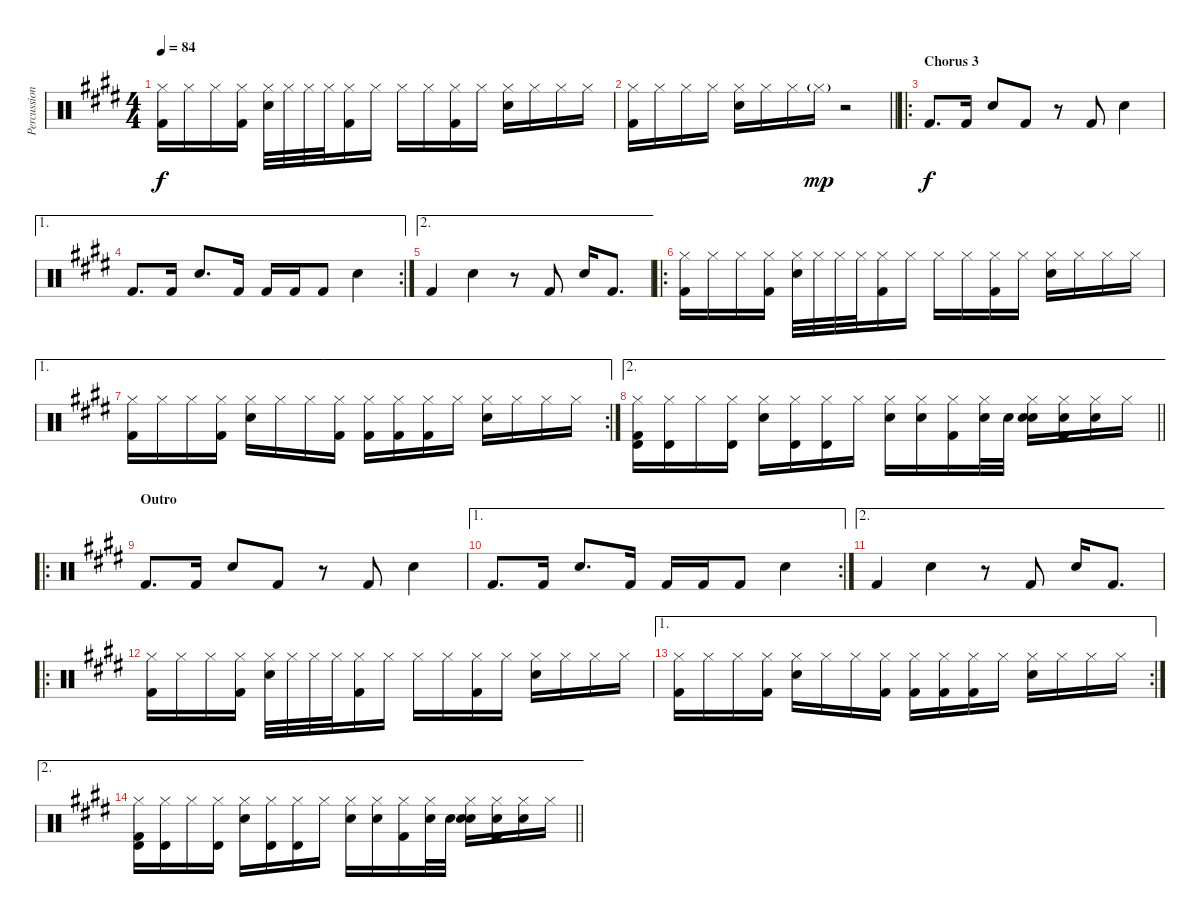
\track ("Percussion" "Percussion") {instrument percussion}
\staff {score}
\articulation defaults
\ts (4 4)
\tempo 84
\clef neutral
\ks e
("Hi-Hat (closed)" "Kick (hit) 2").16{dy f} "Hi-Hat (closed)".16 "Hi-Hat (closed)".16 ("Hi-Hat (closed)" "Kick (hit) 2").16 ("Hi-Hat (closed)" "Hand Clap (hit)").32 "Hi-Hat (closed)".32 "Hi-Hat (closed)".32 "Hi-Hat (closed)".32 ("Hi-Hat (closed)" "Kick (hit) 2").16 "Hi-Hat (closed)".16 "Hi-Hat (closed)".16 "Hi-Hat (closed)".16 ("Hi-Hat (closed)" "Kick (hit) 2").16 "Hi-Hat (closed)".16 ("Hi-Hat (closed)" "Hand Clap (hit)").16 "Hi-Hat (closed)".16 "Hi-Hat (closed)".16 "Hi-Hat (closed)".16 |
\barLineRight lightlight
("Hi-Hat (closed)" "Kick (hit) 2").16 "Hi-Hat (closed)".16 "Hi-Hat (closed)".16 "Hi-Hat (closed)".16 ("Hi-Hat (closed)" "Hand Clap (hit)").16 "Hi-Hat (closed)".16 "Hi-Hat (closed)".16 "Hi-Hat (closed)"{g}.16{dy mp} r.2 |
\ro
\section ("" "Chorus 3")
"Kick (hit) 2".8{d dy f} "Kick (hit) 2".16 "Hand Clap (hit)".8 "Kick (hit) 2".8 r.8 "Kick (hit) 2".8 "Hand Clap (hit)".4 |
\ae 1
\rc 2 "Kick (hit) 2".8{d} "Kick (hit) 2".16 "Hand Clap (hit)".8{d} "Kick (hit) 2".16 "Kick (hit) 2".16 "Kick (hit) 2".16 "Kick (hit) 2".8 "Hand Clap (hit)".4
|
\ae 2 "Kick (hit) 2".4 "Hand Clap (hit)".4
r.8 "Kick (hit) 2".8 "Hand Clap (hit)".16 "Kick (hit) 2".8{d} |
\ro
("Hi-Hat (closed)" "Kick (hit) 2").16 "Hi-Hat (closed)".16 "Hi-Hat (closed)".16 ("Hi-Hat (closed)" "Kick (hit) 2").16 ("Hi-Hat (closed)" "Hand Clap (hit)").32 "Hi-Hat (closed)".32 "Hi-Hat (closed)".32 "Hi-Hat (closed)".32 ("Hi-Hat (closed)" "Kick (hit) 2").16 "Hi-Hat (closed)".16 "Hi-Hat (closed)".16 "Hi-Hat (closed)".16 ("Hi-Hat (closed)" "Kick (hit) 2").16 "Hi-Hat (closed)".16 ("Hi-Hat (closed)" "Hand Clap (hit)").16 "Hi-Hat (closed)".16 "Hi-Hat (closed)".16 "Hi-Hat (closed)".16 |
\ae 1
\rc 2
("Hi-Hat (closed)" "Kick (hit) 2").16 "Hi-Hat (closed)".16 "Hi-Hat (closed)".16 ("Hi-Hat (closed)" "Kick (hit) 2").16 ("Hi-Hat (closed)" "Hand Clap (hit)").16 "Hi-Hat (closed)".16 "Hi-Hat (closed)".16 ("Hi-Hat (closed)" "Kick (hit) 2").16 ("Hi-Hat (closed)" "Kick (hit) 2").16 ("Hi-Hat (closed)" "Kick (hit) 2").16 ("Hi-Hat (closed)" "Kick (hit) 2").16 "Hi-Hat (closed)".16 ("Hi-Hat (closed)" "Hand Clap (hit)").16 "Hi-Hat (closed)".16 "Hi-Hat (closed)".16 "Hi-Hat (closed)".16 |
\ae 2
\barLineRight lightlight
("Hi-Hat (closed)" "Timbale high (hit)" "Kick (hit) 2").16 ("Hi-Hat (closed)" "Timbale high (hit)").16 "Hi-Hat (closed)".16 ("Hi-Hat (closed)" "Timbale high (hit)").16 ("Hi-Hat (closed)" "Hand Clap (hit)").16 ("Hi-Hat (closed)" "Timbale high (hit)").16 ("Hi-Hat (closed)" "Timbale high (hit)").16 "Hi-Hat (closed)".16 ("Hi-Hat (closed)" "Snare (hit) 2").16 ("Hi-Hat (closed)" "Snare (hit) 2").16 ("Hi-Hat (closed)" "Kick (hit) 2").16 ("Hi-Hat (closed)" "Snare (hit) 2").32 "Snare (hit) 2".32 ("Hi-Hat (closed)" "Snare (hit) 2" "Hand Clap (hit)").16 ("Hi-Hat (closed)" "Snare (hit) 2" "Kick (hit) 2").16 ("Hi-Hat (closed)" "Snare (hit) 2").16 "Hi-Hat (closed)".16 |
\ro
\section ("" "Outro")
"Kick (hit) 2".8{d} "Kick (hit) 2".16 "Hand Clap (hit)".8 "Kick (hit) 2".8 r.8 "Kick (hit) 2".8 "Hand Clap (hit)".4 |
\ae 1
\rc 2 "Kick (hit) 2".8{d} "Kick (hit) 2".16 "Hand Clap (hit)".8{d} "Kick (hit) 2".16 "Kick (hit) 2".16 "Kick (hit) 2".16 "Kick (hit) 2".8 "Hand Clap (hit)".4
|
\ae 2 "Kick (hit) 2".4 "Hand Clap (hit)".4
r.8 "Kick (hit) 2".8 "Hand Clap (hit)".16 "Kick (hit) 2".8{d} |
\ro
("Hi-Hat (closed)" "Kick (hit) 2").16 "Hi-Hat (closed)".16 "Hi-Hat (closed)".16 ("Hi-Hat (closed)" "Kick (hit) 2").16 ("Hi-Hat (closed)" "Hand Clap (hit)").32 "Hi-Hat (closed)".32 "Hi-Hat (closed)".32 "Hi-Hat (closed)".32 ("Hi-Hat (closed)" "Kick (hit) 2").16 "Hi-Hat (closed)".16 "Hi-Hat (closed)".16 "Hi-Hat (closed)".16 ("Hi-Hat (closed)" "Kick (hit) 2").16 "Hi-Hat (closed)".16 ("Hi-Hat (closed)" "Hand Clap (hit)").16 "Hi-Hat (closed)".16 "Hi-Hat (closed)".16 "Hi-Hat (closed)".16 |
\ae 1
\rc 2
("Hi-Hat (closed)" "Kick (hit) 2").16 "Hi-Hat (closed)".16 "Hi-Hat (closed)".16 ("Hi-Hat (closed)" "Kick (hit) 2").16 ("Hi-Hat (closed)" "Hand Clap (hit)").16 "Hi-Hat (closed)".16 "Hi-Hat (closed)".16 ("Hi-Hat (closed)" "Kick (hit) 2").16 ("Hi-Hat (closed)" "Kick (hit) 2").16 ("Hi-Hat (closed)" "Kick (hit) 2").16 ("Hi-Hat (closed)" "Kick (hit) 2").16 "Hi-Hat (closed)".16 ("Hi-Hat (closed)" "Hand Clap (hit)").16 "Hi-Hat (closed)".16 "Hi-Hat (closed)".16 "Hi-Hat (closed)".16 |
\ae 2
\barLineRight lightlight
("Hi-Hat (closed)" "Timbale high (hit)" "Kick (hit) 2").16 ("Hi-Hat (closed)" "Timbale high (hit)").16 "Hi-Hat (closed)".16 ("Hi-Hat (closed)" "Timbale high (hit)").16 ("Hi-Hat (closed)" "Hand Clap (hit)").16 ("Hi-Hat (closed)" "Timbale high (hit)").16 ("Hi-Hat (closed)" "Timbale high (hit)").16 "Hi-Hat (closed)".16 ("Hi-Hat (closed)" "Snare (hit) 2").16 ("Hi-Hat (closed)" "Snare (hit) 2").16 ("Hi-Hat (closed)" "Kick (hit) 2").16 ("Hi-Hat (closed)" "Snare (hit) 2").32 "Snare (hit) 2".32 ("Hi-Hat (closed)" "Snare (hit) 2" "Hand Clap (hit)").16 ("Hi-Hat (closed)" "Snare (hit) 2" "Kick (hit) 2").16 ("Hi-Hat (closed)" "Snare (hit) 2").16 "Hi-Hat (closed)".16
